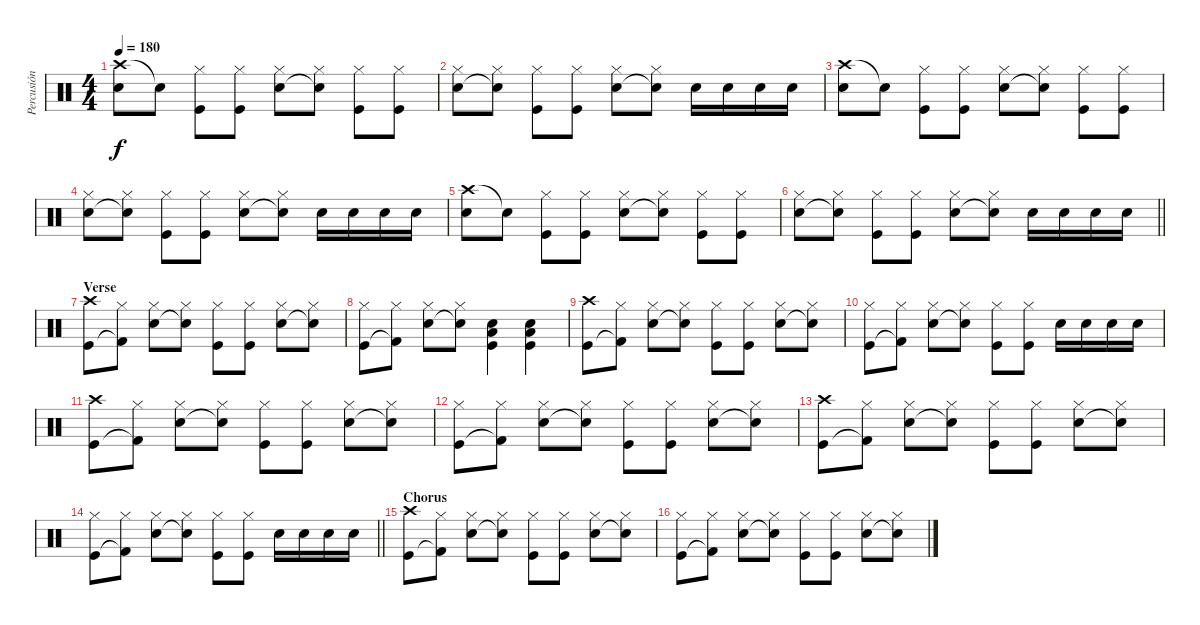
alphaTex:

\track ("Percusión" "Percusión") {instrument percussion}
\staff {score}
\articulation defaults
\ts (4 4)
\tempo 180
\clef neutral
\ks c
("Crash high (hit)" "Snare (hit) 2").8{dy f} "Snare (hit)"{t}.8 ("Hi-Hat (closed)" "Kick (hit)").8 ("Hi-Hat (closed)" "Kick (hit)").8 ("Hi-Hat (closed)" "Snare (hit) 2").8 ("Hi-Hat (closed)" "Snare (hit)"{t}).8 ("Hi-Hat (closed)" "Kick (hit)").8 ("Hi-Hat (closed)" "Kick (hit)").8 |
("Hi-Hat (closed)" "Snare (hit) 2").8 ("Hi-Hat (closed)" "Snare (hit)"{t}).8 ("Hi-Hat (closed)" "Kick (hit)").8 ("Hi-Hat (closed)" "Kick (hit)").8 ("Hi-Hat (closed)" "Snare (hit) 2").8 ("Hi-Hat (closed)" "Snare (hit) 2"{t}).8 "Snare (hit) 2".16 "Snare (hit) 2".16 "Snare (hit) 2".16 "Snare (hit) 2".16 |
("Crash high (hit)" "Snare (hit) 2").8 "Snare (hit)"{t}.8 ("Hi-Hat (closed)" "Kick (hit)").8 ("Hi-Hat (closed)" "Kick (hit)").8 ("Hi-Hat (closed)" "Snare (hit) 2").8 ("Hi-Hat (closed)" "Snare (hit)"{t}).8 ("Hi-Hat (closed)" "Kick (hit)").8 ("Hi-Hat (closed)" "Kick (hit)").8 |
("Hi-Hat (closed)" "Snare (hit) 2").8 ("Hi-Hat (closed)" "Snare (hit)"{t}).8 ("Hi-Hat (closed)" "Kick (hit)").8 ("Hi-Hat (closed)" "Kick (hit)").8 ("Hi-Hat (closed)" "Snare (hit) 2").8 ("Hi-Hat (closed)" "Snare (hit) 2"{t}).8 "Snare (hit) 2".16 "Snare (hit) 2".16 "Snare (hit) 2".16 "Snare (hit) 2".16 |
("Crash high (hit)" "Snare (hit) 2").8 "Snare (hit)"{t}.8 ("Hi-Hat (closed)" "Kick (hit)").8 ("Hi-Hat (closed)" "Kick (hit)").8 ("Hi-Hat (closed)" "Snare (hit) 2").8 ("Hi-Hat (closed)" "Snare (hit)"{t}).8 ("Hi-Hat (closed)" "Kick (hit)").8 ("Hi-Hat (closed)" "Kick (hit)").8 |
\barLineRight lightlight
("Hi-Hat (closed)" "Snare (hit) 2").8 ("Hi-Hat (closed)" "Snare (hit)"{t}).8 ("Hi-Hat (closed)" "Kick (hit)").8 ("Hi-Hat (closed)" "Kick (hit)").8 ("Hi-Hat (closed)" "Snare (hit) 2").8 ("Hi-Hat (closed)" "Snare (hit) 2"{t}).8 "Snare (hit) 2".16 "Snare (hit) 2".16 "Snare (hit) 2".16 "Snare (hit) 2".16 |
\section ("" "Verse")
("Crash high (hit)" "Kick (hit)").8 ("Hi-Hat (closed)" "Kick (hit) 2"{t}).8 ("Hi-Hat (closed)" "Snare (hit) 2").8 ("Hi-Hat (closed)" "Snare (hit)"{t}).8 ("Hi-Hat (closed)" "Kick (hit)").8 ("Hi-Hat (closed)" "Kick (hit)").8 ("Hi-Hat (closed)" "Snare (hit) 2").8 ("Hi-Hat (closed)" "Snare (hit)"{t}).8 |
("Hi-Hat (closed)" "Kick (hit)").8 ("Hi-Hat (closed)" "Kick (hit) 2"{t}).8 ("Hi-Hat (closed)" "Snare (hit) 2").8 ("Hi-Hat (closed)" "Snare (hit)"{t}).8 ("Low Floor Tom (hit)" "Snare (hit) 2" "Kick (hit)").4 ("Low Floor Tom (hit)" "Snare (hit) 2" "Kick (hit)").4 |
("Crash high (hit)" "Kick (hit)").8 ("Hi-Hat (closed)" "Kick (hit) 2"{t}).8 ("Hi-Hat (closed)" "Snare (hit) 2").8 ("Hi-Hat (closed)" "Snare (hit)"{t}).8 ("Hi-Hat (closed)" "Kick (hit)").8 ("Hi-Hat (closed)" "Kick (hit)").8 ("Hi-Hat (closed)" "Snare (hit) 2").8 ("Hi-Hat (closed)" "Snare (hit)"{t}).8 |
("Hi-Hat (closed)" "Kick (hit)").8 ("Hi-Hat (closed)" "Kick (hit) 2"{t}).8 ("Hi-Hat (closed)" "Snare (hit) 2").8 ("Hi-Hat (closed)" "Snare (hit)"{t}).8 ("Hi-Hat (closed)" "Kick (hit)").8 ("Hi-Hat (closed)" "Kick (hit)").8 "Snare (hit) 2".16 "Snare (hit) 2".16 "Snare (hit) 2".16 "Snare (hit) 2".16 |
("Crash high (hit)" "Kick (hit)").8 ("Hi-Hat (closed)" "Kick (hit) 2"{t}).8 ("Hi-Hat (closed)" "Snare (hit) 2").8 ("Hi-Hat (closed)" "Snare (hit)"{t}).8 ("Hi-Hat (closed)" "Kick (hit)").8 ("Hi-Hat (closed)" "Kick (hit)").8 ("Hi-Hat (closed)" "Snare (hit) 2").8 ("Hi-Hat (closed)" "Snare (hit)"{t}).8 |
("Hi-Hat (closed)" "Kick (hit)").8 ("Hi-Hat (closed)" "Kick (hit) 2"{t}).8 ("Hi-Hat (closed)" "Snare (hit) 2").8 ("Hi-Hat (closed)" "Snare (hit)"{t}).8 ("Hi-Hat (closed)" "Kick (hit)").8 ("Hi-Hat (closed)" "Kick (hit)").8 ("Hi-Hat (closed)" "Snare (hit) 2").8 ("Hi-Hat (closed)" "Snare (hit)"{t}).8 |
("Crash high (hit)" "Kick (hit)").8 ("Hi-Hat (closed)" "Kick (hit) 2"{t}).8 ("Hi-Hat (closed)" "Snare (hit) 2").8 ("Hi-Hat (closed)" "Snare (hit)"{t}).8 ("Hi-Hat (closed)" "Kick (hit)").8 ("Hi-Hat (closed)" "Kick (hit)").8 ("Hi-Hat (closed)" "Snare (hit) 2").8 ("Hi-Hat (closed)" "Snare (hit)"{t}).8 |
\barLineRight lightlight
("Hi-Hat (closed)" "Kick (hit)").8 ("Hi-Hat (closed)" "Kick (hit) 2"{t}).8 ("Hi-Hat (closed)" "Snare (hit) 2").8 ("Hi-Hat (closed)" "Snare (hit)"{t}).8 ("Hi-Hat (closed)" "Kick (hit)").8 ("Hi-Hat (closed)" "Kick (hit)").8 "Snare (hit) 2".16 "Snare (hit) 2".16 "Snare (hit) 2".16 "Snare (hit) 2".16 |
\section ("" "Chorus")
("Crash high (hit)" "Kick (hit)").8 ("Hi-Hat (closed)" "Kick (hit) 2"{t}).8 ("Hi-Hat (closed)" "Snare (hit) 2").8 ("Hi-Hat (closed)" "Snare (hit)"{t}).8 ("Hi-Hat (closed)" "Kick (hit)").8 ("Hi-Hat (closed)" "Kick (hit)").8 ("Hi-Hat (closed)" "Snare (hit) 2").8 ("Hi-Hat (closed)" "Snare (hit)"{t}).8 |
("Hi-Hat (closed)" "Kick (hit)").8 ("Hi-Hat (closed)" "Kick (hit) 2"{t}).8 ("Hi-Hat (closed)" "Snare (hit) 2").8 ("Hi-Hat (closed)" "Snare (hit)"{t}).8 ("Hi-Hat (closed)" "Kick (hit)").8 ("Hi-Hat (closed)" "Kick (hit)").8 ("Hi-Hat (closed)" "Snare (hit) 2").8 ("Hi-Hat (closed)" "Snare (hit)"{t}).8
